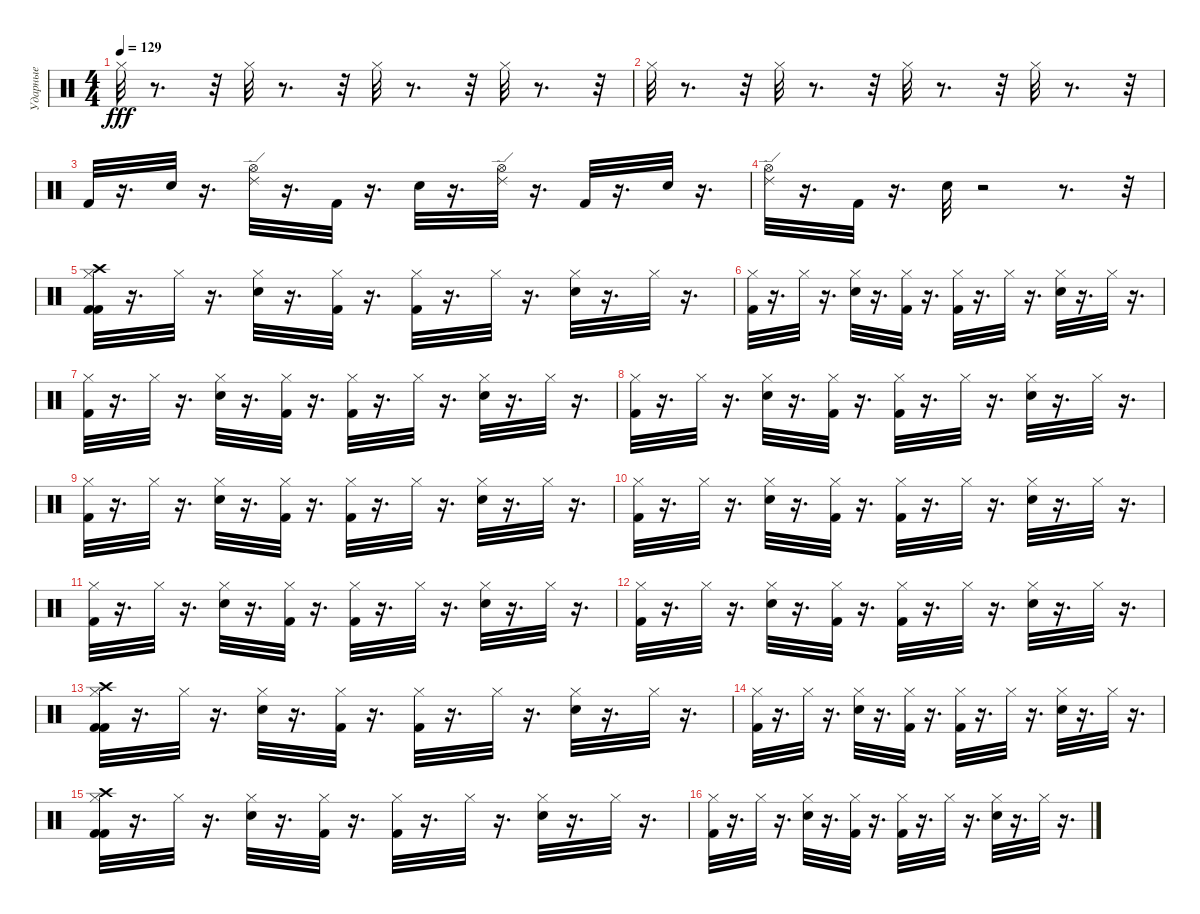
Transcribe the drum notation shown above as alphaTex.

\track ("Ударные" "Ударные") {instrument percussion}
\staff {score}
\articulation defaults
\ts (4 4)
\tempo 129
\clef neutral
\ks c "Hi-Hat (closed)".32{dy fff}
r.8{d} r.32 "Hi-Hat (closed)".32{balance 10} r.8{d} r.32 "Hi-Hat (closed)".32{balance 10} r.8{d} r.32 "Hi-Hat (closed)".32{balance 10} r.8{d} r.32 |
"Hi-Hat (closed)".32{balance 10} r.8{d} r.32 "Hi-Hat (closed)".32{balance 10} r.8{d} r.32 "Hi-Hat (closed)".32{balance 10} r.8{d} r.32 "Hi-Hat (closed)".32{balance 10} r.8{d} r.32 |
"Kick (hit) 2".32{balance 13} r.16{d} "Electric Snare (hit)".32{balance 0} r.16{d} ("Hi-Hat (open)" "Ride (edge) 2").32{balance 8} r.16{d} "Kick (hit) 2".32{balance 13} r.16{d} "Electric Snare (hit)".32{balance 0} r.16{d} ("Hi-Hat (open)" "Ride (edge) 2").32{balance 8} r.16{d} "Kick (hit) 2".32{balance 13} r.16{d} "Electric Snare (hit)".32{balance 0} r.16{d} |
("Hi-Hat (open)" "Ride (edge) 2").32{balance 8} r.16{d} "Kick (hit) 2".32{balance 13} r.16{d} "Electric Snare (hit)".32{balance 0} r.2 r.8{d} r.32 |
("Kick (hit) 2" "Crash high (hit)" "Kick (hit) 2" "Hi-Hat (closed)").32{balance 10} r.16{d} "Hi-Hat (closed)".32{balance 10} r.16{d} ("Electric Snare (hit)" "Hi-Hat (closed)").32{balance 10} r.16{d} ("Kick (hit) 2" "Hi-Hat (closed)").32{balance 10} r.16{d} ("Kick (hit) 2" "Hi-Hat (closed)").32{balance 10} r.16{d} "Hi-Hat (closed)".32{balance 10} r.16{d} ("Electric Snare (hit)" "Hi-Hat (closed)").32{balance 10} r.16{d} "Hi-Hat (closed)".32{balance 10} r.16{d} |
("Kick (hit) 2" "Hi-Hat (closed)").32{balance 10} r.16{d} "Hi-Hat (closed)".32{balance 10} r.16{d} ("Electric Snare (hit)" "Hi-Hat (closed)").32{balance 10} r.16{d} ("Kick (hit) 2" "Hi-Hat (closed)").32{balance 10} r.16{d} ("Kick (hit) 2" "Hi-Hat (closed)").32{balance 10} r.16{d} "Hi-Hat (closed)".32{balance 10} r.16{d} ("Electric Snare (hit)" "Hi-Hat (closed)").32{balance 10} r.16{d} "Hi-Hat (closed)".32{balance 10} r.16{d} |
("Kick (hit) 2" "Hi-Hat (closed)").32{balance 10} r.16{d} "Hi-Hat (closed)".32{balance 10} r.16{d} ("Electric Snare (hit)" "Hi-Hat (closed)").32{balance 10} r.16{d} ("Kick (hit) 2" "Hi-Hat (closed)").32{balance 10} r.16{d} ("Kick (hit) 2" "Hi-Hat (closed)").32{balance 10} r.16{d} "Hi-Hat (closed)".32{balance 10} r.16{d} ("Electric Snare (hit)" "Hi-Hat (closed)").32{balance 10} r.16{d} "Hi-Hat (closed)".32{balance 10} r.16{d} |
("Kick (hit) 2" "Hi-Hat (closed)").32{balance 10} r.16{d} "Hi-Hat (closed)".32{balance 10} r.16{d} ("Electric Snare (hit)" "Hi-Hat (closed)").32{balance 10} r.16{d} ("Kick (hit) 2" "Hi-Hat (closed)").32{balance 10} r.16{d} ("Kick (hit) 2" "Hi-Hat (closed)").32{balance 10} r.16{d} "Hi-Hat (closed)".32{balance 10} r.16{d} ("Electric Snare (hit)" "Hi-Hat (closed)").32{balance 10} r.16{d} "Hi-Hat (closed)".32{balance 10} r.16{d} |
("Kick (hit) 2" "Hi-Hat (closed)").32{balance 10} r.16{d} "Hi-Hat (closed)".32{balance 10} r.16{d} ("Electric Snare (hit)" "Hi-Hat (closed)").32{balance 10} r.16{d} ("Kick (hit) 2" "Hi-Hat (closed)").32{balance 10} r.16{d} ("Kick (hit) 2" "Hi-Hat (closed)").32{balance 10} r.16{d} "Hi-Hat (closed)".32{balance 10} r.16{d} ("Electric Snare (hit)" "Hi-Hat (closed)").32{balance 10} r.16{d} "Hi-Hat (closed)".32{balance 10} r.16{d} |
("Kick (hit) 2" "Hi-Hat (closed)").32{balance 10} r.16{d} "Hi-Hat (closed)".32{balance 10} r.16{d} ("Electric Snare (hit)" "Hi-Hat (closed)").32{balance 10} r.16{d} ("Kick (hit) 2" "Hi-Hat (closed)").32{balance 10} r.16{d} ("Kick (hit) 2" "Hi-Hat (closed)").32{balance 10} r.16{d} "Hi-Hat (closed)".32{balance 10} r.16{d} ("Electric Snare (hit)" "Hi-Hat (closed)").32{balance 10} r.16{d} "Hi-Hat (closed)".32{balance 10} r.16{d} |
("Kick (hit) 2" "Hi-Hat (closed)").32{balance 10} r.16{d} "Hi-Hat (closed)".32{balance 10} r.16{d} ("Electric Snare (hit)" "Hi-Hat (closed)").32{balance 10} r.16{d} ("Kick (hit) 2" "Hi-Hat (closed)").32{balance 10} r.16{d} ("Kick (hit) 2" "Hi-Hat (closed)").32{balance 10} r.16{d} "Hi-Hat (closed)".32{balance 10} r.16{d} ("Electric Snare (hit)" "Hi-Hat (closed)").32{balance 10} r.16{d} "Hi-Hat (closed)".32{balance 10} r.16{d} |
("Kick (hit) 2" "Hi-Hat (closed)").32{balance 10} r.16{d} "Hi-Hat (closed)".32{balance 10} r.16{d} ("Electric Snare (hit)" "Hi-Hat (closed)").32{balance 10} r.16{d} ("Kick (hit) 2" "Hi-Hat (closed)").32{balance 10} r.16{d} ("Kick (hit) 2" "Hi-Hat (closed)").32{balance 10} r.16{d} "Hi-Hat (closed)".32{balance 10} r.16{d} ("Electric Snare (hit)" "Hi-Hat (closed)").32{balance 10} r.16{d} "Hi-Hat (closed)".32{balance 10} r.16{d} |
("Kick (hit) 2" "Crash high (hit)" "Kick (hit) 2" "Hi-Hat (closed)").32{balance 10} r.16{d} "Hi-Hat (closed)".32{balance 10} r.16{d} ("Electric Snare (hit)" "Hi-Hat (closed)").32{balance 10} r.16{d} ("Kick (hit) 2" "Hi-Hat (closed)").32{balance 10} r.16{d} ("Kick (hit) 2" "Hi-Hat (closed)").32{balance 10} r.16{d} "Hi-Hat (closed)".32{balance 10} r.16{d} ("Electric Snare (hit)" "Hi-Hat (closed)").32{balance 10} r.16{d} "Hi-Hat (closed)".32{balance 10} r.16{d} |
("Kick (hit) 2" "Hi-Hat (closed)").32{balance 10} r.16{d} "Hi-Hat (closed)".32{balance 10} r.16{d} ("Electric Snare (hit)" "Hi-Hat (closed)").32{balance 10} r.16{d} ("Kick (hit) 2" "Hi-Hat (closed)").32{balance 10} r.16{d} ("Kick (hit) 2" "Hi-Hat (closed)").32{balance 10} r.16{d} "Hi-Hat (closed)".32{balance 10} r.16{d} ("Electric Snare (hit)" "Hi-Hat (closed)").32{balance 10} r.16{d} "Hi-Hat (closed)".32{balance 10} r.16{d} |
("Kick (hit) 2" "Crash high (hit)" "Kick (hit) 2" "Hi-Hat (closed)").32{balance 10} r.16{d} "Hi-Hat (closed)".32{balance 10} r.16{d} ("Electric Snare (hit)" "Hi-Hat (closed)").32{balance 10} r.16{d} ("Kick (hit) 2" "Hi-Hat (closed)").32{balance 10} r.16{d} ("Kick (hit) 2" "Hi-Hat (closed)").32{balance 10} r.16{d} "Hi-Hat (closed)".32{balance 10} r.16{d} ("Electric Snare (hit)" "Hi-Hat (closed)").32{balance 10} r.16{d} "Hi-Hat (closed)".32{balance 10} r.16{d} |
("Kick (hit) 2" "Hi-Hat (closed)").32{balance 10} r.16{d} "Hi-Hat (closed)".32{balance 10} r.16{d} ("Electric Snare (hit)" "Hi-Hat (closed)").32{balance 10} r.16{d} ("Kick (hit) 2" "Hi-Hat (closed)").32{balance 10} r.16{d} ("Kick (hit) 2" "Hi-Hat (closed)").32{balance 10} r.16{d} "Hi-Hat (closed)".32{balance 10} r.16{d} ("Electric Snare (hit)" "Hi-Hat (closed)").32{balance 10} r.16{d} "Hi-Hat (closed)".32{balance 10} r.16{d}
